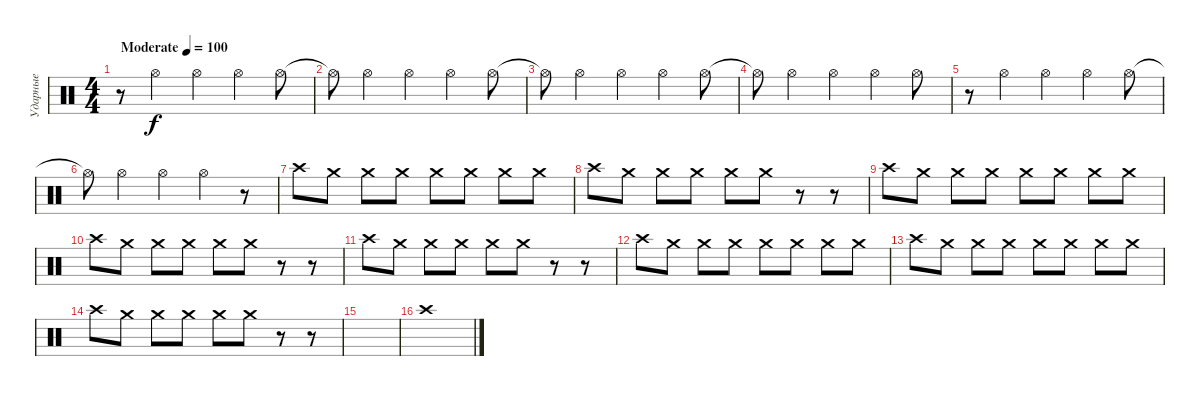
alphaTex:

\track ("Ударные" "Ударные") {instrument percussion}
\staff {score}
\articulation defaults
\ts (4 4)
\tempo (100 "Moderate")
\clef neutral
\ks c
r.8{dy f} "Hi-Hat (open)".4 "Hi-Hat (open)".4 "Hi-Hat (open)".4 "Hi-Hat (open)".8 |
"Hi-Hat (open)"{t}.8 "Hi-Hat (open)".4 "Hi-Hat (open)".4 "Hi-Hat (open)".4 "Hi-Hat (open)".8 |
"Hi-Hat (open)"{t}.8 "Hi-Hat (open)".4 "Hi-Hat (open)".4 "Hi-Hat (open)".4 "Hi-Hat (open)".8 |
"Hi-Hat (open)"{t}.8 "Hi-Hat (open)".4 "Hi-Hat (open)".4 "Hi-Hat (open)".4 "Hi-Hat (open)".8 |
r.8 "Hi-Hat (open)".4 "Hi-Hat (open)".4 "Hi-Hat (open)".4 "Hi-Hat (open)".8 |
"Hi-Hat (open)"{t}.8 "Hi-Hat (open)".4 "Hi-Hat (open)".4 "Hi-Hat (open)".4 r.8 |
"Crash high (hit)".8 "Crash medium (hit)".8 "Crash medium (hit)".8 "Crash medium (hit)".8 "Crash medium (hit)".8 "Crash medium (hit)".8 "Crash medium (hit)".8 "Crash medium (hit)".8 |
"Crash high (hit)".8 "Crash medium (hit)".8 "Crash medium (hit)".8 "Crash medium (hit)".8 "Crash medium (hit)".8 "Crash medium (hit)".8 r.8 r.8 |
"Crash high (hit)".8 "Crash medium (hit)".8 "Crash medium (hit)".8 "Crash medium (hit)".8 "Crash medium (hit)".8 "Crash medium (hit)".8 "Crash medium (hit)".8 "Crash medium (hit)".8 |
"Crash high (hit)".8 "Crash medium (hit)".8 "Crash medium (hit)".8 "Crash medium (hit)".8 "Crash medium (hit)".8 "Crash medium (hit)".8 r.8 r.8 |
"Crash high (hit)".8 "Crash medium (hit)".8 "Crash medium (hit)".8 "Crash medium (hit)".8 "Crash medium (hit)".8 "Crash medium (hit)".8 r.8 r.8 |
"Crash high (hit)".8 "Crash medium (hit)".8 "Crash medium (hit)".8 "Crash medium (hit)".8 "Crash medium (hit)".8 "Crash medium (hit)".8 "Crash medium (hit)".8 "Crash medium (hit)".8 |
"Crash high (hit)".8 "Crash medium (hit)".8 "Crash medium (hit)".8 "Crash medium (hit)".8 "Crash medium (hit)".8 "Crash medium (hit)".8 "Crash medium (hit)".8 "Crash medium (hit)".8 |
"Crash high (hit)".8 "Crash medium (hit)".8 "Crash medium (hit)".8 "Crash medium (hit)".8 "Crash medium (hit)".8 "Crash medium (hit)".8 r.8 r.8 |
|
"Crash high (hit)".1
